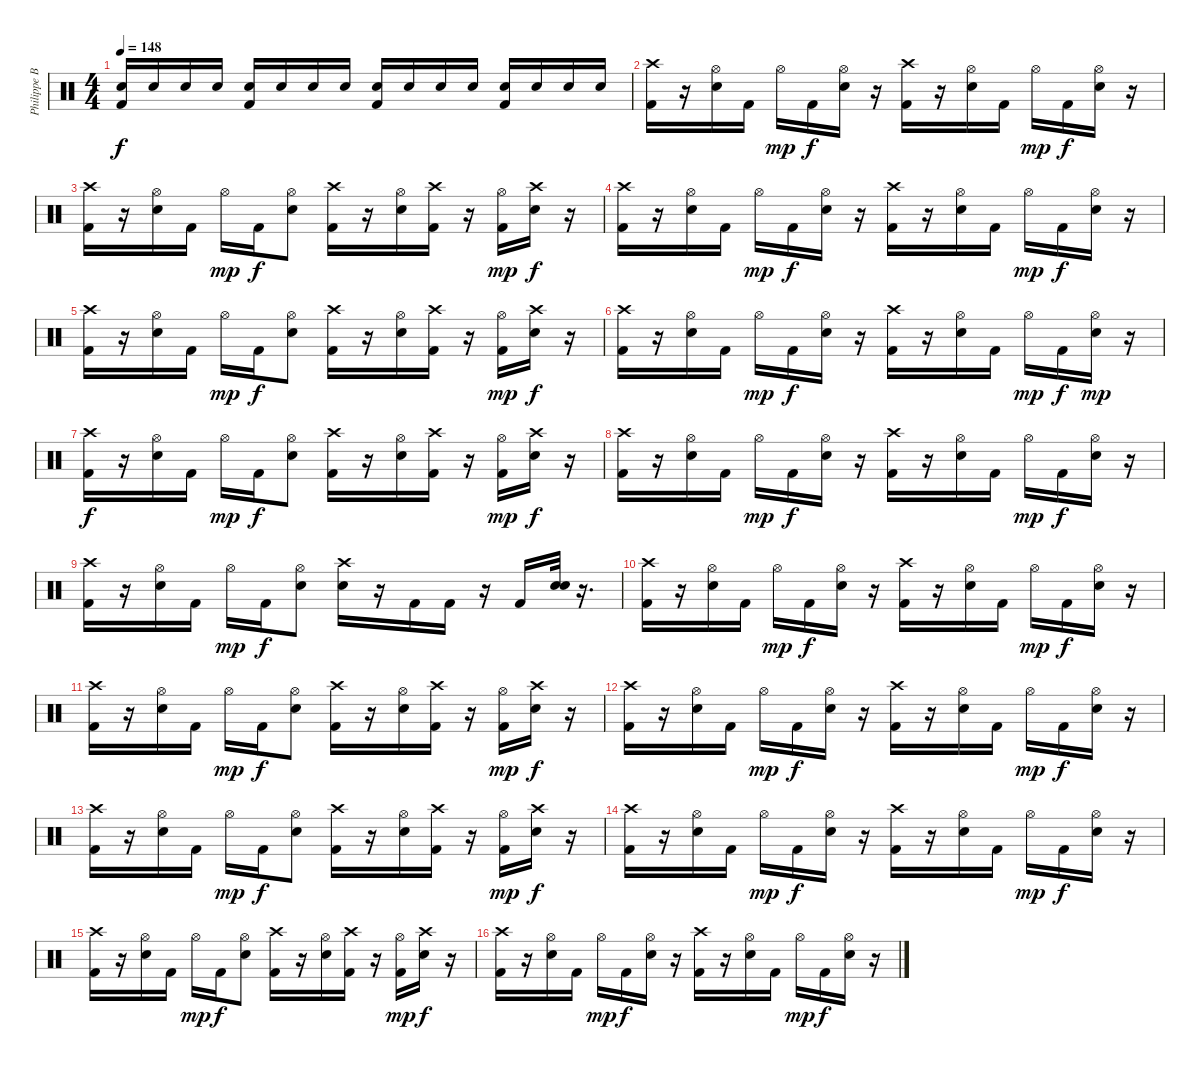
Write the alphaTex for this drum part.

\track ("Philippe Borda" "Philippe B") {instrument percussion}
\staff {score}
\articulation defaults
\ts (4 4)
\tempo 148
\clef neutral
\ks c
("Kick (hit) 2" "Snare (hit) 2").16{dy f} "Snare (hit) 2".16 "Snare (hit) 2".16 "Snare (hit) 2".16 ("Kick (hit) 2" "Snare (hit) 2").16 "Snare (hit) 2".16 "Snare (hit) 2".16 "Snare (hit) 2".16 ("Kick (hit) 2" "Snare (hit) 2").16 "Snare (hit) 2".16 "Snare (hit) 2".16 "Snare (hit) 2".16 ("Kick (hit) 2" "Snare (hit) 2").16 "Snare (hit) 2".16 "Snare (hit) 2".16 "Snare (hit) 2".16 |
("Crash high (hit)" "Kick (hit) 2").16 r.16 ("Hi-Hat (open)" "Snare (hit) 2").16 "Kick (hit) 2".16 "Hi-Hat (open)".16{dy mp} "Kick (hit) 2".16{dy f} ("Hi-Hat (open)" "Snare (hit) 2").16 r.16 ("Crash high (hit)" "Kick (hit) 2").16 r.16 ("Hi-Hat (open)" "Snare (hit) 2").16 "Kick (hit) 2".16 "Hi-Hat (open)".16{dy mp} "Kick (hit) 2".16{dy f} ("Hi-Hat (open)" "Snare (hit) 2").16 r.16 |
("Crash high (hit)" "Kick (hit) 2").16 r.16 ("Hi-Hat (open)" "Snare (hit) 2").16 "Kick (hit) 2".16 "Hi-Hat (open)".16{dy mp} "Kick (hit) 2".16{dy f} ("Hi-Hat (open)" "Snare (hit) 2").8 ("Crash high (hit)" "Kick (hit) 2").16 r.16 ("Hi-Hat (open)" "Snare (hit) 2").16 ("Crash high (hit)" "Kick (hit) 2").16 r.16 ("Hi-Hat (open)" "Kick (hit) 2").16{dy mp} ("Crash high (hit)" "Snare (hit) 2").16{dy f} r.16 |
("Crash high (hit)" "Kick (hit) 2").16 r.16 ("Hi-Hat (open)" "Snare (hit) 2").16 "Kick (hit) 2".16 "Hi-Hat (open)".16{dy mp} "Kick (hit) 2".16{dy f} ("Hi-Hat (open)" "Snare (hit) 2").16 r.16 ("Crash high (hit)" "Kick (hit) 2").16 r.16 ("Hi-Hat (open)" "Snare (hit) 2").16 "Kick (hit) 2".16 "Hi-Hat (open)".16{dy mp} "Kick (hit) 2".16{dy f} ("Hi-Hat (open)" "Snare (hit) 2").16 r.16 |
("Crash high (hit)" "Kick (hit) 2").16 r.16 ("Hi-Hat (open)" "Snare (hit) 2").16 "Kick (hit) 2".16 "Hi-Hat (open)".16{dy mp} "Kick (hit) 2".16{dy f} ("Hi-Hat (open)" "Snare (hit) 2").8 ("Crash high (hit)" "Kick (hit) 2").16 r.16 ("Hi-Hat (open)" "Snare (hit) 2").16 ("Crash high (hit)" "Kick (hit) 2").16 r.16 ("Hi-Hat (open)" "Kick (hit) 2").16{dy mp} ("Crash high (hit)" "Snare (hit) 2").16{dy f} r.16 |
("Crash high (hit)" "Kick (hit) 2").16 r.16 ("Hi-Hat (open)" "Snare (hit) 2").16 "Kick (hit) 2".16 "Hi-Hat (open)".16{dy mp} "Kick (hit) 2".16{dy f} ("Hi-Hat (open)" "Snare (hit) 2").16 r.16 ("Crash high (hit)" "Kick (hit) 2").16 r.16 ("Hi-Hat (open)" "Snare (hit) 2").16 "Kick (hit) 2".16 "Hi-Hat (open)".16{dy mp} "Kick (hit) 2".16{dy f} ("Hi-Hat (open)" "Snare (hit) 2").16{dy mp} r.16 |
("Crash high (hit)" "Kick (hit) 2").16{dy f} r.16 ("Hi-Hat (open)" "Snare (hit) 2").16 "Kick (hit) 2".16 "Hi-Hat (open)".16{dy mp} "Kick (hit) 2".16{dy f} ("Hi-Hat (open)" "Snare (hit) 2").8 ("Crash high (hit)" "Kick (hit) 2").16 r.16 ("Hi-Hat (open)" "Snare (hit) 2").16 ("Crash high (hit)" "Kick (hit) 2").16 r.16 ("Hi-Hat (open)" "Kick (hit) 2").16{dy mp} ("Crash high (hit)" "Snare (hit) 2").16{dy f} r.16 |
("Crash high (hit)" "Kick (hit) 2").16 r.16 ("Hi-Hat (open)" "Snare (hit) 2").16 "Kick (hit) 2".16 "Hi-Hat (open)".16{dy mp} "Kick (hit) 2".16{dy f} ("Hi-Hat (open)" "Snare (hit) 2").16 r.16 ("Crash high (hit)" "Kick (hit) 2").16 r.16 ("Hi-Hat (open)" "Snare (hit) 2").16 "Kick (hit) 2".16 "Hi-Hat (open)".16{dy mp} "Kick (hit) 2".16{dy f} ("Hi-Hat (open)" "Snare (hit) 2").16 r.16 |
("Crash high (hit)" "Kick (hit) 2").16 r.16 ("Hi-Hat (open)" "Snare (hit) 2").16 "Kick (hit) 2".16 "Hi-Hat (open)".16{dy mp} "Kick (hit) 2".16{dy f} ("Hi-Hat (open)" "Snare (hit) 2").8 ("Crash high (hit)" "Snare (hit) 2").16 r.16 "Kick (hit) 2".16 "Kick (hit) 2".16 r.16 "Kick (hit) 2".16 ("Snare (hit) 2" "Snare (hit) 2").32 r.16{d} |
("Crash high (hit)" "Kick (hit) 2").16 r.16 ("Hi-Hat (open)" "Snare (hit) 2").16 "Kick (hit) 2".16 "Hi-Hat (open)".16{dy mp} "Kick (hit) 2".16{dy f} ("Hi-Hat (open)" "Snare (hit) 2").16 r.16 ("Crash high (hit)" "Kick (hit) 2").16 r.16 ("Hi-Hat (open)" "Snare (hit) 2").16 "Kick (hit) 2".16 "Hi-Hat (open)".16{dy mp} "Kick (hit) 2".16{dy f} ("Hi-Hat (open)" "Snare (hit) 2").16 r.16 |
("Crash high (hit)" "Kick (hit) 2").16 r.16 ("Hi-Hat (open)" "Snare (hit) 2").16 "Kick (hit) 2".16 "Hi-Hat (open)".16{dy mp} "Kick (hit) 2".16{dy f} ("Hi-Hat (open)" "Snare (hit) 2").8 ("Crash high (hit)" "Kick (hit) 2").16 r.16 ("Hi-Hat (open)" "Snare (hit) 2").16 ("Crash high (hit)" "Kick (hit) 2").16 r.16 ("Hi-Hat (open)" "Kick (hit) 2").16{dy mp} ("Crash high (hit)" "Snare (hit) 2").16{dy f} r.16 |
("Crash high (hit)" "Kick (hit) 2").16 r.16 ("Hi-Hat (open)" "Snare (hit) 2").16 "Kick (hit) 2".16 "Hi-Hat (open)".16{dy mp} "Kick (hit) 2".16{dy f} ("Hi-Hat (open)" "Snare (hit) 2").16 r.16 ("Crash high (hit)" "Kick (hit) 2").16 r.16 ("Hi-Hat (open)" "Snare (hit) 2").16 "Kick (hit) 2".16 "Hi-Hat (open)".16{dy mp} "Kick (hit) 2".16{dy f} ("Hi-Hat (open)" "Snare (hit) 2").16 r.16 |
("Crash high (hit)" "Kick (hit) 2").16 r.16 ("Hi-Hat (open)" "Snare (hit) 2").16 "Kick (hit) 2".16 "Hi-Hat (open)".16{dy mp} "Kick (hit) 2".16{dy f} ("Hi-Hat (open)" "Snare (hit) 2").8 ("Crash high (hit)" "Kick (hit) 2").16 r.16 ("Hi-Hat (open)" "Snare (hit) 2").16 ("Crash high (hit)" "Kick (hit) 2").16 r.16 ("Hi-Hat (open)" "Kick (hit) 2").16{dy mp} ("Crash high (hit)" "Snare (hit) 2").16{dy f} r.16 |
("Crash high (hit)" "Kick (hit) 2").16 r.16 ("Hi-Hat (open)" "Snare (hit) 2").16 "Kick (hit) 2".16 "Hi-Hat (open)".16{dy mp} "Kick (hit) 2".16{dy f} ("Hi-Hat (open)" "Snare (hit) 2").16 r.16 ("Crash high (hit)" "Kick (hit) 2").16 r.16 ("Hi-Hat (open)" "Snare (hit) 2").16 "Kick (hit) 2".16 "Hi-Hat (open)".16{dy mp} "Kick (hit) 2".16{dy f} ("Hi-Hat (open)" "Snare (hit) 2").16 r.16 |
("Crash high (hit)" "Kick (hit) 2").16 r.16 ("Hi-Hat (open)" "Snare (hit) 2").16 "Kick (hit) 2".16 "Hi-Hat (open)".16{dy mp} "Kick (hit) 2".16{dy f} ("Hi-Hat (open)" "Snare (hit) 2").8 ("Crash high (hit)" "Kick (hit) 2").16 r.16 ("Hi-Hat (open)" "Snare (hit) 2").16 ("Crash high (hit)" "Kick (hit) 2").16 r.16 ("Hi-Hat (open)" "Kick (hit) 2").16{dy mp} ("Crash high (hit)" "Snare (hit) 2").16{dy f} r.16 |
("Crash high (hit)" "Kick (hit) 2").16 r.16 ("Hi-Hat (open)" "Snare (hit) 2").16 "Kick (hit) 2".16 "Hi-Hat (open)".16{dy mp} "Kick (hit) 2".16{dy f} ("Hi-Hat (open)" "Snare (hit) 2").16 r.16 ("Crash high (hit)" "Kick (hit) 2").16 r.16 ("Hi-Hat (open)" "Snare (hit) 2").16 "Kick (hit) 2".16 "Hi-Hat (open)".16{dy mp} "Kick (hit) 2".16{dy f} ("Hi-Hat (open)" "Snare (hit) 2").16 r.16
